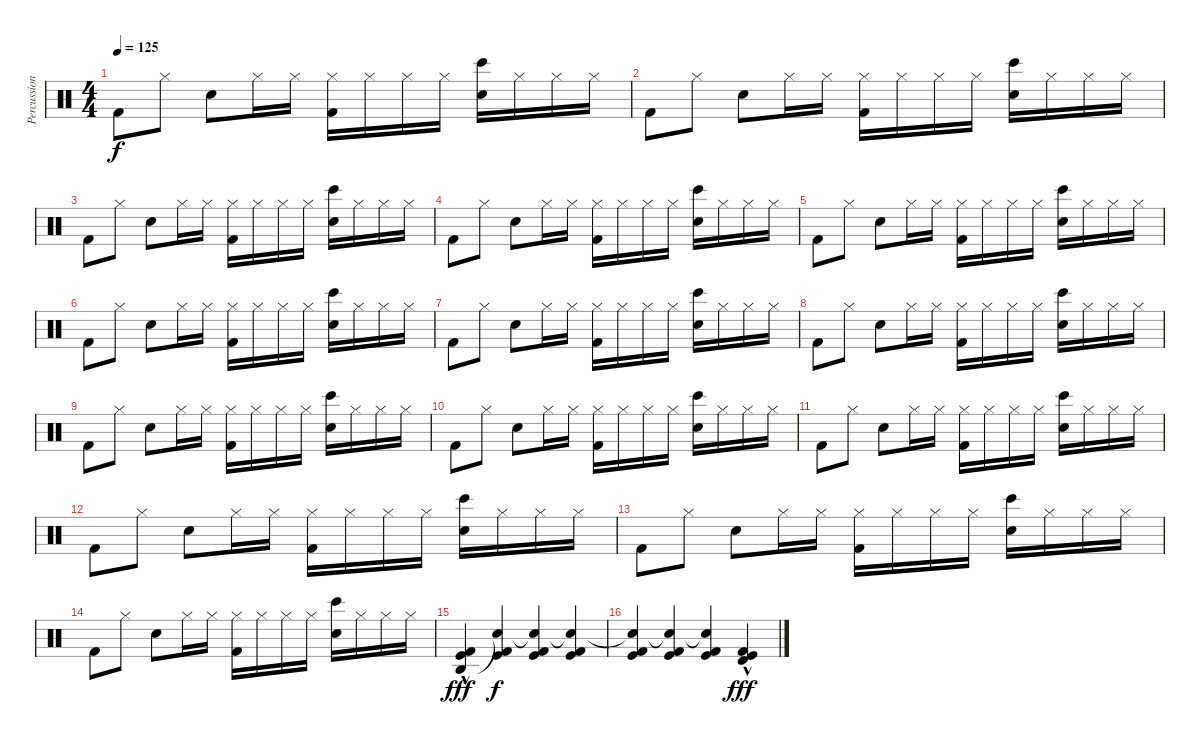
\track ("Percussion" "Percussion") {instrument percussion}
\staff {score}
\articulation defaults
\ts (4 4)
\tempo 125
\clef neutral
\ks c "Kick (hit) 2".8{dy f} "Hi-Hat (closed)".8 "Snare (hit) 2".8 "Hi-Hat (closed)".16 "Hi-Hat (closed)".16
("Hi-Hat (closed)" "Kick (hit) 2").16 "Hi-Hat (closed)".16 "Hi-Hat (closed)".16 "Hi-Hat (closed)".16 ("Bongo High (hit)" "Snare (hit) 2").16 "Hi-Hat (closed)".16 "Hi-Hat (closed)".16 "Hi-Hat (closed)".16 |
"Kick (hit) 2".8 "Hi-Hat (closed)".8 "Snare (hit) 2".8 "Hi-Hat (closed)".16 "Hi-Hat (closed)".16 ("Hi-Hat (closed)" "Kick (hit) 2").16 "Hi-Hat (closed)".16 "Hi-Hat (closed)".16 "Hi-Hat (closed)".16 ("Bongo High (hit)" "Snare (hit) 2").16 "Hi-Hat (closed)".16 "Hi-Hat (closed)".16 "Hi-Hat (closed)".16 |
"Kick (hit) 2".8 "Hi-Hat (closed)".8 "Snare (hit) 2".8 "Hi-Hat (closed)".16 "Hi-Hat (closed)".16 ("Hi-Hat (closed)" "Kick (hit) 2").16 "Hi-Hat (closed)".16 "Hi-Hat (closed)".16 "Hi-Hat (closed)".16 ("Bongo High (hit)" "Snare (hit) 2").16 "Hi-Hat (closed)".16 "Hi-Hat (closed)".16 "Hi-Hat (closed)".16 |
"Kick (hit) 2".8 "Hi-Hat (closed)".8 "Snare (hit) 2".8 "Hi-Hat (closed)".16 "Hi-Hat (closed)".16 ("Hi-Hat (closed)" "Kick (hit) 2").16 "Hi-Hat (closed)".16 "Hi-Hat (closed)".16 "Hi-Hat (closed)".16 ("Bongo High (hit)" "Snare (hit) 2").16 "Hi-Hat (closed)".16 "Hi-Hat (closed)".16 "Hi-Hat (closed)".16 |
"Kick (hit) 2".8 "Hi-Hat (closed)".8 "Snare (hit) 2".8 "Hi-Hat (closed)".16 "Hi-Hat (closed)".16 ("Hi-Hat (closed)" "Kick (hit) 2").16 "Hi-Hat (closed)".16 "Hi-Hat (closed)".16 "Hi-Hat (closed)".16 ("Bongo High (hit)" "Snare (hit) 2").16 "Hi-Hat (closed)".16 "Hi-Hat (closed)".16 "Hi-Hat (closed)".16 |
"Kick (hit) 2".8 "Hi-Hat (closed)".8 "Snare (hit) 2".8 "Hi-Hat (closed)".16 "Hi-Hat (closed)".16 ("Hi-Hat (closed)" "Kick (hit) 2").16 "Hi-Hat (closed)".16 "Hi-Hat (closed)".16 "Hi-Hat (closed)".16 ("Bongo High (hit)" "Snare (hit) 2").16 "Hi-Hat (closed)".16 "Hi-Hat (closed)".16 "Hi-Hat (closed)".16 |
"Kick (hit) 2".8 "Hi-Hat (closed)".8 "Snare (hit) 2".8 "Hi-Hat (closed)".16 "Hi-Hat (closed)".16 ("Hi-Hat (closed)" "Kick (hit) 2").16 "Hi-Hat (closed)".16 "Hi-Hat (closed)".16 "Hi-Hat (closed)".16 ("Bongo High (hit)" "Snare (hit) 2").16 "Hi-Hat (closed)".16 "Hi-Hat (closed)".16 "Hi-Hat (closed)".16 |
"Kick (hit) 2".8 "Hi-Hat (closed)".8 "Snare (hit) 2".8 "Hi-Hat (closed)".16 "Hi-Hat (closed)".16 ("Hi-Hat (closed)" "Kick (hit) 2").16 "Hi-Hat (closed)".16 "Hi-Hat (closed)".16 "Hi-Hat (closed)".16 ("Bongo High (hit)" "Snare (hit) 2").16 "Hi-Hat (closed)".16 "Hi-Hat (closed)".16 "Hi-Hat (closed)".16 |
"Kick (hit) 2".8 "Hi-Hat (closed)".8 "Snare (hit) 2".8 "Hi-Hat (closed)".16 "Hi-Hat (closed)".16 ("Hi-Hat (closed)" "Kick (hit) 2").16 "Hi-Hat (closed)".16 "Hi-Hat (closed)".16 "Hi-Hat (closed)".16 ("Bongo High (hit)" "Snare (hit) 2").16 "Hi-Hat (closed)".16 "Hi-Hat (closed)".16 "Hi-Hat (closed)".16 |
"Kick (hit) 2".8 "Hi-Hat (closed)".8 "Snare (hit) 2".8 "Hi-Hat (closed)".16 "Hi-Hat (closed)".16 ("Hi-Hat (closed)" "Kick (hit) 2").16 "Hi-Hat (closed)".16 "Hi-Hat (closed)".16 "Hi-Hat (closed)".16 ("Bongo High (hit)" "Snare (hit) 2").16 "Hi-Hat (closed)".16 "Hi-Hat (closed)".16 "Hi-Hat (closed)".16 |
"Kick (hit) 2".8 "Hi-Hat (closed)".8 "Snare (hit) 2".8 "Hi-Hat (closed)".16 "Hi-Hat (closed)".16 ("Hi-Hat (closed)" "Kick (hit) 2").16 "Hi-Hat (closed)".16 "Hi-Hat (closed)".16 "Hi-Hat (closed)".16 ("Bongo High (hit)" "Snare (hit) 2").16 "Hi-Hat (closed)".16 "Hi-Hat (closed)".16 "Hi-Hat (closed)".16 |
"Kick (hit) 2".8 "Hi-Hat (closed)".8 "Snare (hit) 2".8 "Hi-Hat (closed)".16 "Hi-Hat (closed)".16 ("Hi-Hat (closed)" "Kick (hit) 2").16 "Hi-Hat (closed)".16 "Hi-Hat (closed)".16 "Hi-Hat (closed)".16 ("Bongo High (hit)" "Snare (hit) 2").16 "Hi-Hat (closed)".16 "Hi-Hat (closed)".16 "Hi-Hat (closed)".16 |
"Kick (hit) 2".8 "Hi-Hat (closed)".8 "Snare (hit) 2".8 "Hi-Hat (closed)".16 "Hi-Hat (closed)".16 ("Hi-Hat (closed)" "Kick (hit) 2").16 "Hi-Hat (closed)".16 "Hi-Hat (closed)".16 "Hi-Hat (closed)".16 ("Bongo High (hit)" "Snare (hit) 2").16 "Hi-Hat (closed)".16 "Hi-Hat (closed)".16 "Hi-Hat (closed)".16 |
"Kick (hit) 2".8 "Hi-Hat (closed)".8 "Snare (hit) 2".8 "Hi-Hat (closed)".16 "Hi-Hat (closed)".16 ("Hi-Hat (closed)" "Kick (hit) 2").16 "Hi-Hat (closed)".16 "Hi-Hat (closed)".16 "Hi-Hat (closed)".16 ("Bongo High (hit)" "Snare (hit) 2").16 "Hi-Hat (closed)".16 "Hi-Hat (closed)".16 "Hi-Hat (closed)".16 |
("Agogo high (hit)"{hac} "Kick (hit)" "Kick (hit) 2").4{dy fff} ("Snare (hit)"{t} "Kick (hit)" "Kick (hit) 2").4{dy f} ("Snare (hit)"{t} "Kick (hit) 2" "Kick (hit)").4 ("Snare (hit)"{t} "Kick (hit)" "Kick (hit) 2").4 |
("Snare (hit)"{t} "Kick (hit)" "Kick (hit) 2").4 ("Snare (hit)"{t} "Kick (hit)" "Kick (hit) 2").4 ("Snare (hit)"{t} "Kick (hit) 2" "Kick (hit)").4 ("Timbale high (hit)"{hac} "Kick (hit)" "Kick (hit) 2").4{dy fff}
